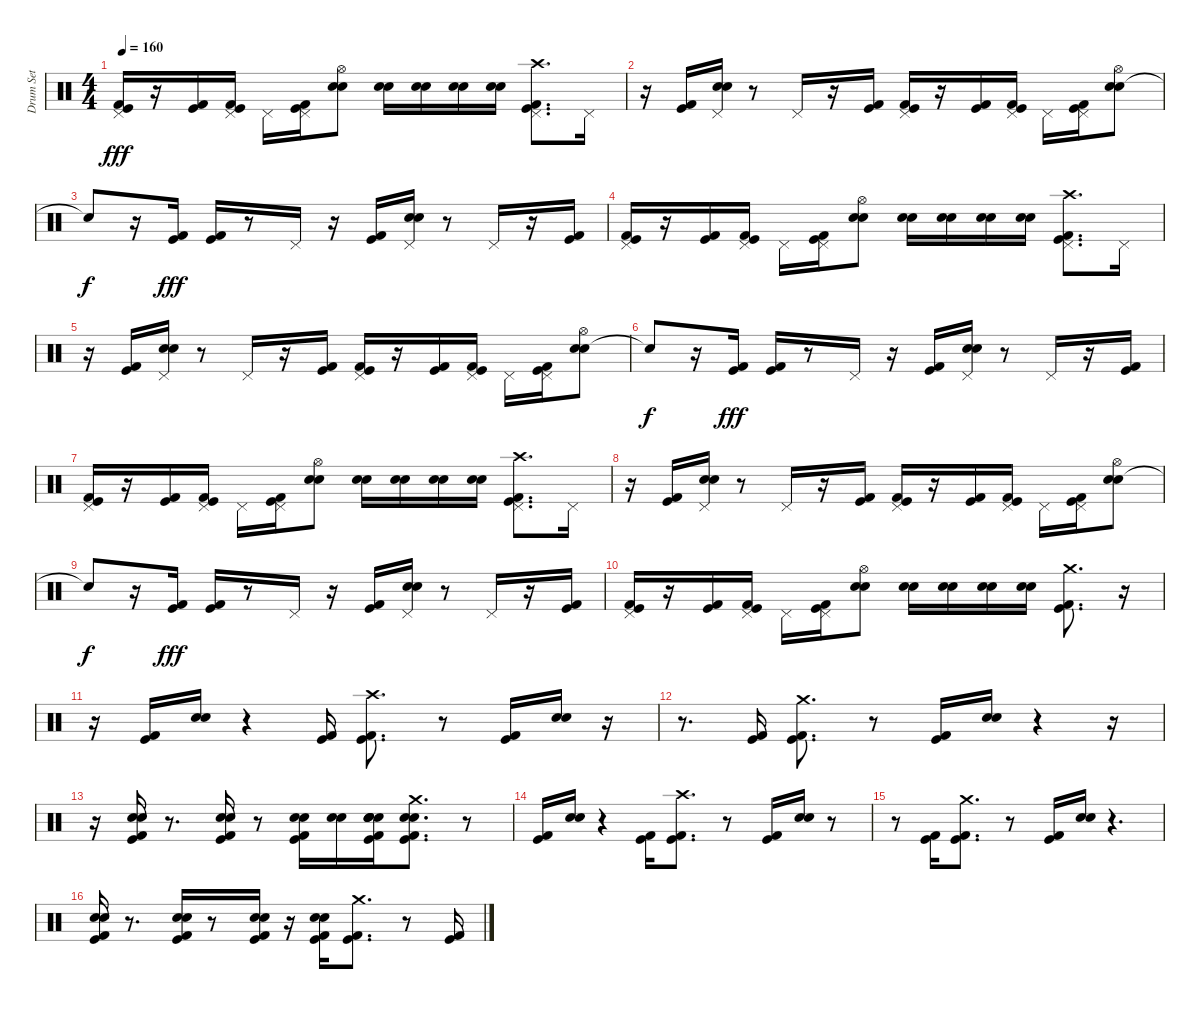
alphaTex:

\track ("Drum Set" "Drum Set") {instrument percussion}
\staff {score}
\articulation defaults
\ts (4 4)
\tempo 160
\clef neutral
\ks c
("Kick (hit)" "Kick (hit) 2" "Pedal Hi-Hat (hit)").16{dy fff} r.16 ("Kick (hit)" "Kick (hit) 2").16 ("Kick (hit)" "Kick (hit) 2" "Pedal Hi-Hat (hit)").16 "Pedal Hi-Hat (hit)".16 ("Kick (hit) 2" "Kick (hit)" "Pedal Hi-Hat (hit)").16 ("Snare (hit) 2" "Electric Snare (hit)" "Hi-Hat (open)").8 ("Snare (hit) 2" "Electric Snare (hit)").16 ("Electric Snare (hit)" "Snare (hit) 2").16 ("Snare (hit) 2" "Electric Snare (hit)").16 ("Electric Snare (hit)" "Snare (hit) 2").16 ("Kick (hit)" "Kick (hit) 2" "Crash high (hit)" "Pedal Hi-Hat (hit)").8{d} "Pedal Hi-Hat (hit)".16 |
r.16 ("Kick (hit) 2" "Kick (hit)").16 ("Electric Snare (hit)" "Snare (hit) 2" "Pedal Hi-Hat (hit)").16 r.8 "Pedal Hi-Hat (hit)".16 r.16 ("Kick (hit) 2" "Kick (hit)").16 ("Kick (hit)" "Kick (hit) 2" "Pedal Hi-Hat (hit)").16 r.16 ("Kick (hit) 2" "Kick (hit)").16 ("Kick (hit)" "Kick (hit) 2" "Pedal Hi-Hat (hit)").16 "Pedal Hi-Hat (hit)".16 ("Kick (hit)" "Kick (hit) 2" "Pedal Hi-Hat (hit)").16 ("Snare (hit) 2" "Electric Snare (hit)" "Hi-Hat (open)").8 |
"Snare (hit)"{t}.8{dy f} r.16 ("Kick (hit)" "Kick (hit) 2").16{dy fff} ("Kick (hit)" "Kick (hit) 2").16 r.8 "Pedal Hi-Hat (hit)".16 r.16 ("Kick (hit) 2" "Kick (hit)").16 ("Snare (hit) 2" "Electric Snare (hit)" "Pedal Hi-Hat (hit)").16 r.8 "Pedal Hi-Hat (hit)".16 r.16 ("Kick (hit)" "Kick (hit) 2").16 |
("Kick (hit)" "Kick (hit) 2" "Pedal Hi-Hat (hit)").16 r.16 ("Kick (hit)" "Kick (hit) 2").16 ("Kick (hit)" "Kick (hit) 2" "Pedal Hi-Hat (hit)").16 "Pedal Hi-Hat (hit)".16 ("Kick (hit) 2" "Kick (hit)" "Pedal Hi-Hat (hit)").16 ("Snare (hit) 2" "Electric Snare (hit)" "Hi-Hat (open)").8 ("Snare (hit) 2" "Electric Snare (hit)").16 ("Electric Snare (hit)" "Snare (hit) 2").16 ("Snare (hit) 2" "Electric Snare (hit)").16 ("Electric Snare (hit)" "Snare (hit) 2").16 ("Kick (hit)" "Kick (hit) 2" "Crash high (hit)" "Pedal Hi-Hat (hit)").8{d} "Pedal Hi-Hat (hit)".16 |
r.16 ("Kick (hit) 2" "Kick (hit)").16 ("Electric Snare (hit)" "Snare (hit) 2" "Pedal Hi-Hat (hit)").16 r.8 "Pedal Hi-Hat (hit)".16 r.16 ("Kick (hit) 2" "Kick (hit)").16 ("Kick (hit)" "Kick (hit) 2" "Pedal Hi-Hat (hit)").16 r.16 ("Kick (hit) 2" "Kick (hit)").16 ("Kick (hit)" "Kick (hit) 2" "Pedal Hi-Hat (hit)").16 "Pedal Hi-Hat (hit)".16 ("Kick (hit)" "Kick (hit) 2" "Pedal Hi-Hat (hit)").16 ("Snare (hit) 2" "Electric Snare (hit)" "Hi-Hat (open)").8 |
"Snare (hit)"{t}.8{dy f} r.16 ("Kick (hit)" "Kick (hit) 2").16{dy fff} ("Kick (hit)" "Kick (hit) 2").16 r.8 "Pedal Hi-Hat (hit)".16 r.16 ("Kick (hit) 2" "Kick (hit)").16 ("Snare (hit) 2" "Electric Snare (hit)" "Pedal Hi-Hat (hit)").16 r.8 "Pedal Hi-Hat (hit)".16 r.16 ("Kick (hit)" "Kick (hit) 2").16 |
("Kick (hit)" "Kick (hit) 2" "Pedal Hi-Hat (hit)").16 r.16 ("Kick (hit)" "Kick (hit) 2").16 ("Kick (hit)" "Kick (hit) 2" "Pedal Hi-Hat (hit)").16 "Pedal Hi-Hat (hit)".16 ("Kick (hit) 2" "Kick (hit)" "Pedal Hi-Hat (hit)").16 ("Snare (hit) 2" "Electric Snare (hit)" "Hi-Hat (open)").8 ("Snare (hit) 2" "Electric Snare (hit)").16 ("Electric Snare (hit)" "Snare (hit) 2").16 ("Snare (hit) 2" "Electric Snare (hit)").16 ("Electric Snare (hit)" "Snare (hit) 2").16 ("Kick (hit)" "Kick (hit) 2" "Crash high (hit)" "Pedal Hi-Hat (hit)").8{d} "Pedal Hi-Hat (hit)".16 |
r.16 ("Kick (hit) 2" "Kick (hit)").16 ("Electric Snare (hit)" "Snare (hit) 2" "Pedal Hi-Hat (hit)").16 r.8 "Pedal Hi-Hat (hit)".16 r.16 ("Kick (hit) 2" "Kick (hit)").16 ("Kick (hit)" "Kick (hit) 2" "Pedal Hi-Hat (hit)").16 r.16 ("Kick (hit) 2" "Kick (hit)").16 ("Kick (hit)" "Kick (hit) 2" "Pedal Hi-Hat (hit)").16 "Pedal Hi-Hat (hit)".16 ("Kick (hit)" "Kick (hit) 2" "Pedal Hi-Hat (hit)").16 ("Snare (hit) 2" "Electric Snare (hit)" "Hi-Hat (open)").8 |
"Snare (hit)"{t}.8{dy f} r.16 ("Kick (hit)" "Kick (hit) 2").16{dy fff} ("Kick (hit)" "Kick (hit) 2").16 r.8 "Pedal Hi-Hat (hit)".16 r.16 ("Kick (hit) 2" "Kick (hit)").16 ("Snare (hit) 2" "Electric Snare (hit)" "Pedal Hi-Hat (hit)").16 r.8 "Pedal Hi-Hat (hit)".16 r.16 ("Kick (hit)" "Kick (hit) 2").16 |
("Kick (hit)" "Kick (hit) 2" "Pedal Hi-Hat (hit)").16 r.16 ("Kick (hit)" "Kick (hit) 2").16 ("Kick (hit)" "Kick (hit) 2" "Pedal Hi-Hat (hit)").16 "Pedal Hi-Hat (hit)".16 ("Kick (hit) 2" "Kick (hit)" "Pedal Hi-Hat (hit)").16 ("Snare (hit) 2" "Electric Snare (hit)" "Hi-Hat (open)").8 ("Snare (hit) 2" "Electric Snare (hit)").16 ("Electric Snare (hit)" "Snare (hit) 2").16 ("Snare (hit) 2" "Electric Snare (hit)").16 ("Electric Snare (hit)" "Snare (hit) 2").16 ("Kick (hit) 2" "Kick (hit)" "Crash medium (hit)").8{d} r.16 |
r.16 ("Kick (hit) 2" "Kick (hit)").16 ("Electric Snare (hit)" "Snare (hit) 2").16 r.4 ("Kick (hit) 2" "Kick (hit)").16 ("Kick (hit)" "Kick (hit) 2" "Crash high (hit)").8{d} r.8 ("Kick (hit)" "Kick (hit) 2").16 ("Snare (hit) 2" "Electric Snare (hit)").16 r.16 |
r.8{d} ("Kick (hit) 2" "Kick (hit)").16 ("Kick (hit)" "Kick (hit) 2" "Crash medium (hit)").8{d} r.8 ("Kick (hit) 2" "Kick (hit)").16 ("Snare (hit) 2" "Electric Snare (hit)").16 r.4 r.16 |
r.16 ("Kick (hit) 2" "Kick (hit)" "Snare (hit) 2" "Electric Snare (hit)").16 r.8{d} ("Kick (hit)" "Kick (hit) 2" "Snare (hit) 2" "Electric Snare (hit)").16 r.8 ("Kick (hit)" "Kick (hit) 2" "Snare (hit) 2" "Electric Snare (hit)").16 ("Electric Snare (hit)" "Snare (hit) 2").16 ("Kick (hit)" "Kick (hit) 2" "Electric Snare (hit)" "Snare (hit) 2" "Snare (hit) 2" "Electric Snare (hit)").16 ("Snare (hit) 2" "Electric Snare (hit)" "Kick (hit) 2" "Kick (hit)" "Crash medium (hit)").8{d} r.8 |
("Kick (hit) 2" "Kick (hit)").16 ("Electric Snare (hit)" "Snare (hit) 2").16 r.4 ("Kick (hit) 2" "Kick (hit)").16 ("Kick (hit)" "Kick (hit) 2" "Crash high (hit)").8{d} r.8 ("Kick (hit)" "Kick (hit) 2").16 ("Snare (hit) 2" "Electric Snare (hit)").16 r.8 |
r.8 ("Kick (hit) 2" "Kick (hit)").16 ("Kick (hit)" "Kick (hit) 2" "Crash medium (hit)").8{d} r.8 ("Kick (hit) 2" "Kick (hit)").16 ("Snare (hit) 2" "Electric Snare (hit)").16 r.4{d} |
("Kick (hit) 2" "Kick (hit)" "Snare (hit) 2" "Electric Snare (hit)").16 r.8{d} ("Kick (hit)" "Kick (hit) 2" "Snare (hit) 2" "Electric Snare (hit)").16 r.8 ("Kick (hit)" "Kick (hit) 2" "Snare (hit) 2" "Electric Snare (hit)").16 r.16 ("Kick (hit) 2" "Kick (hit)" "Electric Snare (hit)" "Snare (hit) 2").16 ("Kick (hit) 2" "Kick (hit)" "Crash medium (hit)").8{d} r.8 ("Kick (hit) 2" "Kick (hit)").16
